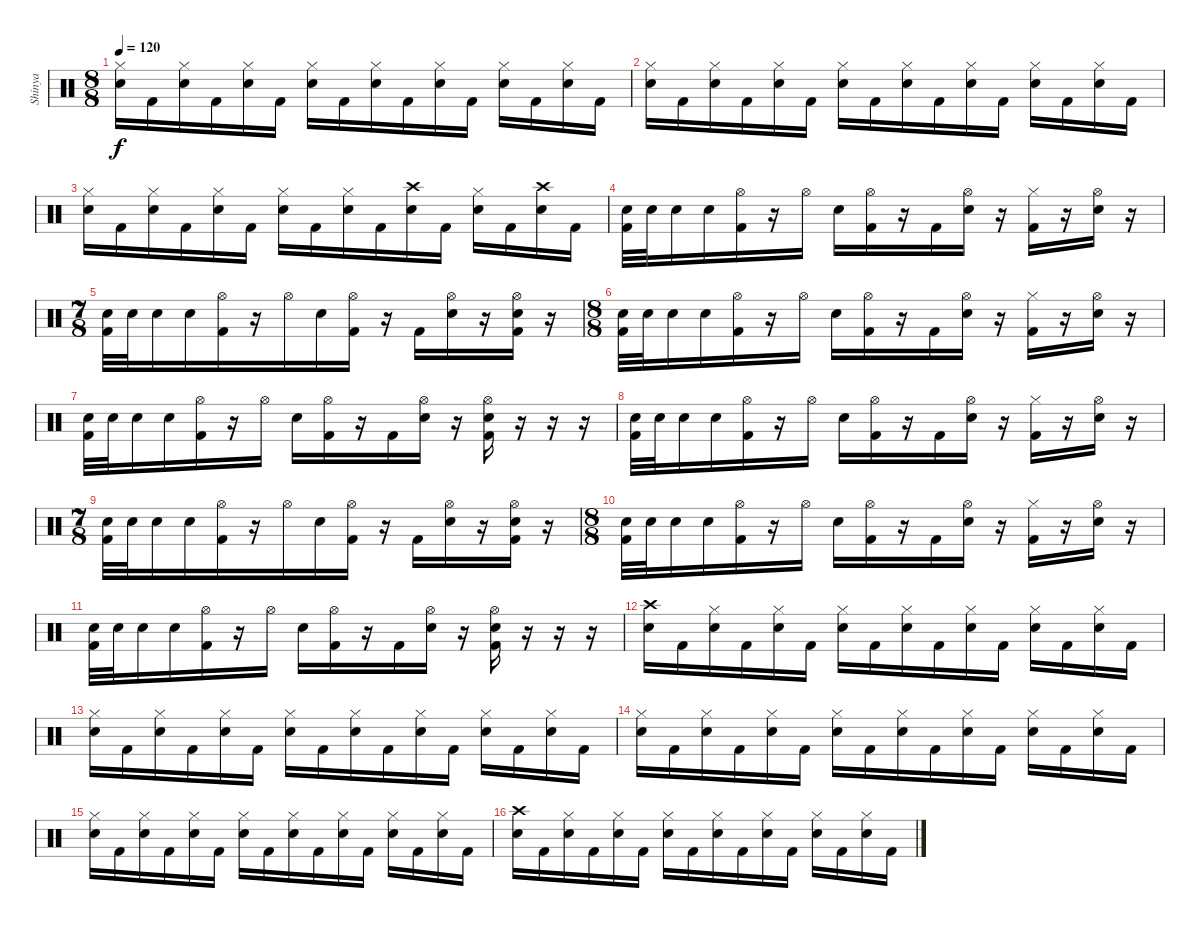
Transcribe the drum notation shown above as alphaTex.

\track ("Shinya" "Shinya") {instrument percussion}
\staff {score}
\articulation defaults
\ts (8 8)
\tempo 120
\clef neutral
\ks c
("Hi-Hat (closed)" "Snare (hit) 2").16{dy f} "Kick (hit) 2".16 ("Hi-Hat (closed)" "Snare (hit) 2").16 "Kick (hit) 2".16 ("Hi-Hat (closed)" "Snare (hit) 2").16 "Kick (hit) 2".16 ("Hi-Hat (closed)" "Snare (hit) 2").16 "Kick (hit) 2".16 ("Hi-Hat (closed)" "Snare (hit) 2").16 "Kick (hit) 2".16 ("Hi-Hat (closed)" "Snare (hit) 2").16 "Kick (hit) 2".16 ("Hi-Hat (closed)" "Snare (hit) 2").16 "Kick (hit) 2".16 ("Hi-Hat (closed)" "Snare (hit) 2").16 "Kick (hit) 2".16 |
("Hi-Hat (closed)" "Snare (hit) 2").16 "Kick (hit) 2".16 ("Hi-Hat (closed)" "Snare (hit) 2").16 "Kick (hit) 2".16 ("Hi-Hat (closed)" "Snare (hit) 2").16 "Kick (hit) 2".16 ("Hi-Hat (closed)" "Snare (hit) 2").16 "Kick (hit) 2".16 ("Hi-Hat (closed)" "Snare (hit) 2").16 "Kick (hit) 2".16 ("Hi-Hat (closed)" "Snare (hit) 2").16 "Kick (hit) 2".16 ("Hi-Hat (closed)" "Snare (hit) 2").16 "Kick (hit) 2".16 ("Hi-Hat (closed)" "Snare (hit) 2").16 "Kick (hit) 2".16 |
("Hi-Hat (closed)" "Snare (hit) 2").16 "Kick (hit) 2".16 ("Hi-Hat (closed)" "Snare (hit) 2").16 "Kick (hit) 2".16 ("Hi-Hat (closed)" "Snare (hit) 2").16 "Kick (hit) 2".16 ("Hi-Hat (closed)" "Snare (hit) 2").16 "Kick (hit) 2".16 ("Hi-Hat (closed)" "Snare (hit) 2").16 "Kick (hit) 2".16 ("Crash high (hit)" "Snare (hit) 2").16 "Kick (hit) 2".16 ("Hi-Hat (closed)" "Snare (hit) 2").16 "Kick (hit) 2".16 ("Crash high (hit)" "Snare (hit) 2").16 "Kick (hit) 2".16 |
("Snare (hit) 2" "Kick (hit) 2").32 "Snare (hit) 2".32 "Snare (hit) 2".16 "Snare (hit) 2".16 ("Hi-Hat (open)" "Kick (hit) 2").16 r.16 "Hi-Hat (open)".16 "Snare (hit) 2".16 ("Hi-Hat (open)" "Kick (hit) 2").16 r.16 "Kick (hit) 2".16 ("Hi-Hat (open)" "Snare (hit) 2").16 r.16 ("Hi-Hat (closed)" "Kick (hit) 2").16 r.16 ("Hi-Hat (open)" "Snare (hit) 2").16 r.16 |
\ts (7 8)
("Snare (hit) 2" "Kick (hit) 2").32 "Snare (hit) 2".32 "Snare (hit) 2".16 "Snare (hit) 2".16 ("Hi-Hat (open)" "Kick (hit) 2").16 r.16 "Hi-Hat (open)".16 "Snare (hit) 2".16 ("Hi-Hat (open)" "Kick (hit) 2").16 r.16 "Kick (hit) 2".16 ("Hi-Hat (open)" "Snare (hit) 2").16 r.16 ("Hi-Hat (open)" "Snare (hit) 2" "Kick (hit) 2").16 r.16 |
\ts (8 8)
("Snare (hit) 2" "Kick (hit) 2").32 "Snare (hit) 2".32 "Snare (hit) 2".16 "Snare (hit) 2".16 ("Hi-Hat (open)" "Kick (hit) 2").16 r.16 "Hi-Hat (open)".16 "Snare (hit) 2".16 ("Hi-Hat (open)" "Kick (hit) 2").16 r.16 "Kick (hit) 2".16 ("Hi-Hat (open)" "Snare (hit) 2").16 r.16 ("Hi-Hat (closed)" "Kick (hit) 2").16 r.16 ("Hi-Hat (open)" "Snare (hit) 2").16 r.16 |
("Snare (hit) 2" "Kick (hit) 2").32 "Snare (hit) 2".32 "Snare (hit) 2".16 "Snare (hit) 2".16 ("Hi-Hat (open)" "Kick (hit) 2").16 r.16 "Hi-Hat (open)".16 "Snare (hit) 2".16 ("Hi-Hat (open)" "Kick (hit) 2").16 r.16 "Kick (hit) 2".16 ("Hi-Hat (open)" "Snare (hit) 2").16 r.16 ("Hi-Hat (open)" "Snare (hit) 2" "Kick (hit) 2").16 r.16 r.16 r.16 |
("Snare (hit) 2" "Kick (hit) 2").32 "Snare (hit) 2".32 "Snare (hit) 2".16 "Snare (hit) 2".16 ("Hi-Hat (open)" "Kick (hit) 2").16 r.16 "Hi-Hat (open)".16 "Snare (hit) 2".16 ("Hi-Hat (open)" "Kick (hit) 2").16 r.16 "Kick (hit) 2".16 ("Hi-Hat (open)" "Snare (hit) 2").16 r.16 ("Hi-Hat (closed)" "Kick (hit) 2").16 r.16 ("Hi-Hat (open)" "Snare (hit) 2").16 r.16 |
\ts (7 8)
("Snare (hit) 2" "Kick (hit) 2").32 "Snare (hit) 2".32 "Snare (hit) 2".16 "Snare (hit) 2".16 ("Hi-Hat (open)" "Kick (hit) 2").16 r.16 "Hi-Hat (open)".16 "Snare (hit) 2".16 ("Hi-Hat (open)" "Kick (hit) 2").16 r.16 "Kick (hit) 2".16 ("Hi-Hat (open)" "Snare (hit) 2").16 r.16 ("Hi-Hat (open)" "Snare (hit) 2" "Kick (hit) 2").16 r.16 |
\ts (8 8)
("Snare (hit) 2" "Kick (hit) 2").32 "Snare (hit) 2".32 "Snare (hit) 2".16 "Snare (hit) 2".16 ("Hi-Hat (open)" "Kick (hit) 2").16 r.16 "Hi-Hat (open)".16 "Snare (hit) 2".16 ("Hi-Hat (open)" "Kick (hit) 2").16 r.16 "Kick (hit) 2".16 ("Hi-Hat (open)" "Snare (hit) 2").16 r.16 ("Hi-Hat (closed)" "Kick (hit) 2").16 r.16 ("Hi-Hat (open)" "Snare (hit) 2").16 r.16 |
("Snare (hit) 2" "Kick (hit) 2").32 "Snare (hit) 2".32 "Snare (hit) 2".16 "Snare (hit) 2".16 ("Hi-Hat (open)" "Kick (hit) 2").16 r.16 "Hi-Hat (open)".16 "Snare (hit) 2".16 ("Hi-Hat (open)" "Kick (hit) 2").16 r.16 "Kick (hit) 2".16 ("Hi-Hat (open)" "Snare (hit) 2").16 r.16 ("Hi-Hat (open)" "Snare (hit) 2" "Kick (hit) 2").16 r.16 r.16 r.16 |
("Crash high (hit)" "Snare (hit) 2").16 "Kick (hit) 2".16 ("Hi-Hat (closed)" "Snare (hit) 2").16 "Kick (hit) 2".16 ("Hi-Hat (closed)" "Snare (hit) 2").16 "Kick (hit) 2".16 ("Hi-Hat (closed)" "Snare (hit) 2").16 "Kick (hit) 2".16 ("Hi-Hat (closed)" "Snare (hit) 2").16 "Kick (hit) 2".16 ("Hi-Hat (closed)" "Snare (hit) 2").16 "Kick (hit) 2".16 ("Hi-Hat (closed)" "Snare (hit) 2").16 "Kick (hit) 2".16 ("Hi-Hat (closed)" "Snare (hit) 2").16 "Kick (hit) 2".16 |
("Hi-Hat (closed)" "Snare (hit) 2").16 "Kick (hit) 2".16 ("Hi-Hat (closed)" "Snare (hit) 2").16 "Kick (hit) 2".16 ("Hi-Hat (closed)" "Snare (hit) 2").16 "Kick (hit) 2".16 ("Hi-Hat (closed)" "Snare (hit) 2").16 "Kick (hit) 2".16 ("Hi-Hat (closed)" "Snare (hit) 2").16 "Kick (hit) 2".16 ("Hi-Hat (closed)" "Snare (hit) 2").16 "Kick (hit) 2".16 ("Hi-Hat (closed)" "Snare (hit) 2").16 "Kick (hit) 2".16 ("Hi-Hat (closed)" "Snare (hit) 2").16 "Kick (hit) 2".16 |
("Hi-Hat (closed)" "Snare (hit) 2").16 "Kick (hit) 2".16 ("Hi-Hat (closed)" "Snare (hit) 2").16 "Kick (hit) 2".16 ("Hi-Hat (closed)" "Snare (hit) 2").16 "Kick (hit) 2".16 ("Hi-Hat (closed)" "Snare (hit) 2").16 "Kick (hit) 2".16 ("Hi-Hat (closed)" "Snare (hit) 2").16 "Kick (hit) 2".16 ("Hi-Hat (closed)" "Snare (hit) 2").16 "Kick (hit) 2".16 ("Hi-Hat (closed)" "Snare (hit) 2").16 "Kick (hit) 2".16 ("Hi-Hat (closed)" "Snare (hit) 2").16 "Kick (hit) 2".16 |
("Hi-Hat (closed)" "Snare (hit) 2").16 "Kick (hit) 2".16 ("Hi-Hat (closed)" "Snare (hit) 2").16 "Kick (hit) 2".16 ("Hi-Hat (closed)" "Snare (hit) 2").16 "Kick (hit) 2".16 ("Hi-Hat (closed)" "Snare (hit) 2").16 "Kick (hit) 2".16 ("Hi-Hat (closed)" "Snare (hit) 2").16 "Kick (hit) 2".16 ("Hi-Hat (closed)" "Snare (hit) 2").16 "Kick (hit) 2".16 ("Hi-Hat (closed)" "Snare (hit) 2").16 "Kick (hit) 2".16 ("Hi-Hat (closed)" "Snare (hit) 2").16 "Kick (hit) 2".16 |
("Crash high (hit)" "Snare (hit) 2").16 "Kick (hit) 2".16 ("Hi-Hat (closed)" "Snare (hit) 2").16 "Kick (hit) 2".16 ("Hi-Hat (closed)" "Snare (hit) 2").16 "Kick (hit) 2".16 ("Hi-Hat (closed)" "Snare (hit) 2").16 "Kick (hit) 2".16 ("Hi-Hat (closed)" "Snare (hit) 2").16 "Kick (hit) 2".16 ("Hi-Hat (closed)" "Snare (hit) 2").16 "Kick (hit) 2".16 ("Hi-Hat (closed)" "Snare (hit) 2").16 "Kick (hit) 2".16 ("Hi-Hat (closed)" "Snare (hit) 2").16 "Kick (hit) 2".16
